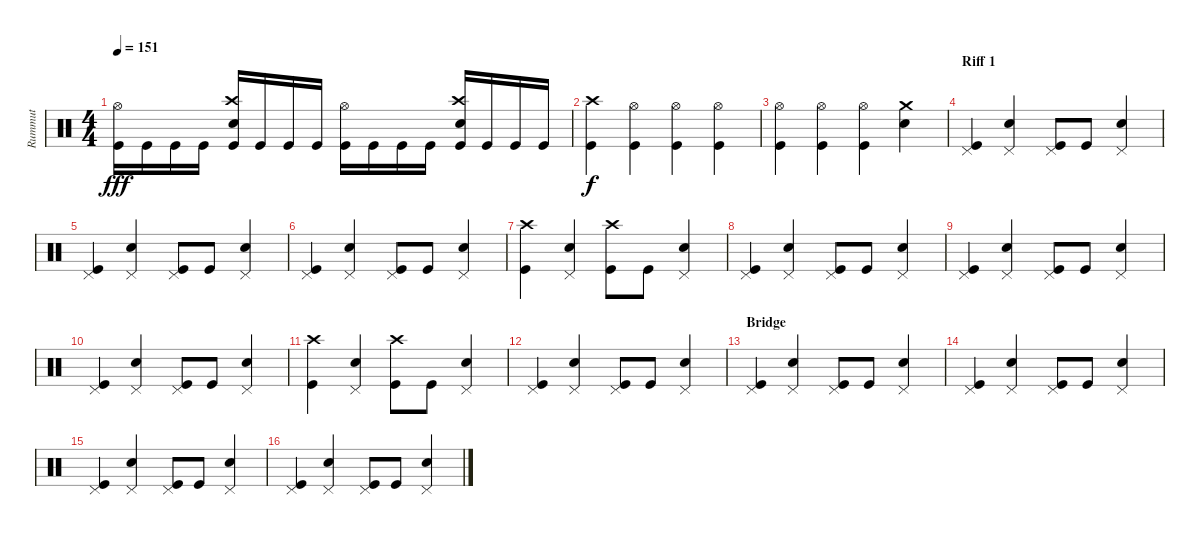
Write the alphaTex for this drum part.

\track ("Rummut" "Rummut") {instrument percussion}
\staff {score}
\articulation defaults
\ts (4 4)
\tempo 151
\clef neutral
\ks c
("Hi-Hat (open)" "Kick (hit)").16{dy fff} "Kick (hit)".16 "Kick (hit)".16 "Kick (hit)".16 ("Crash high (hit)" "Snare (hit) 2" "Kick (hit)").16 "Kick (hit)".16 "Kick (hit)".16 "Kick (hit)".16 ("Hi-Hat (open)" "Kick (hit)").16 "Kick (hit)".16 "Kick (hit)".16 "Kick (hit)".16 ("Crash high (hit)" "Snare (hit) 2" "Kick (hit)").16 "Kick (hit)".16 "Kick (hit)".16 "Kick (hit)".16 |
("Crash high (hit)" "Kick (hit)").4{dy f} ("Hi-Hat (open)" "Kick (hit)").4 ("Hi-Hat (open)" "Kick (hit)").4 ("Hi-Hat (open)" "Kick (hit)").4 |
("Hi-Hat (open)" "Kick (hit)").4 ("Hi-Hat (open)" "Kick (hit)").4 ("Hi-Hat (open)" "Kick (hit)").4 ("Crash medium (hit)" "Snare (hit) 2").4 |
\section ("" "Riff 1")
("Pedal Hi-Hat (hit)" "Kick (hit)").4 ("Pedal Hi-Hat (hit)" "Snare (hit) 2").4 ("Pedal Hi-Hat (hit)" "Kick (hit)").8 "Kick (hit)".8 ("Pedal Hi-Hat (hit)" "Snare (hit) 2").4 |
("Pedal Hi-Hat (hit)" "Kick (hit)").4 ("Pedal Hi-Hat (hit)" "Snare (hit) 2").4 ("Pedal Hi-Hat (hit)" "Kick (hit)").8 "Kick (hit)".8 ("Pedal Hi-Hat (hit)" "Snare (hit) 2").4 |
("Pedal Hi-Hat (hit)" "Kick (hit)").4 ("Pedal Hi-Hat (hit)" "Snare (hit) 2").4 ("Pedal Hi-Hat (hit)" "Kick (hit)").8 "Kick (hit)".8 ("Pedal Hi-Hat (hit)" "Snare (hit) 2").4 |
("Crash high (hit)" "Kick (hit)").4 ("Pedal Hi-Hat (hit)" "Snare (hit) 2").4 ("Crash high (hit)" "Kick (hit)").8 "Kick (hit)".8 ("Pedal Hi-Hat (hit)" "Snare (hit) 2").4 |
("Pedal Hi-Hat (hit)" "Kick (hit)").4 ("Pedal Hi-Hat (hit)" "Snare (hit) 2").4 ("Pedal Hi-Hat (hit)" "Kick (hit)").8 "Kick (hit)".8 ("Pedal Hi-Hat (hit)" "Snare (hit) 2").4 |
("Pedal Hi-Hat (hit)" "Kick (hit)").4 ("Pedal Hi-Hat (hit)" "Snare (hit) 2").4 ("Pedal Hi-Hat (hit)" "Kick (hit)").8 "Kick (hit)".8 ("Pedal Hi-Hat (hit)" "Snare (hit) 2").4 |
("Pedal Hi-Hat (hit)" "Kick (hit)").4 ("Pedal Hi-Hat (hit)" "Snare (hit) 2").4 ("Pedal Hi-Hat (hit)" "Kick (hit)").8 "Kick (hit)".8 ("Pedal Hi-Hat (hit)" "Snare (hit) 2").4 |
("Crash high (hit)" "Kick (hit)").4 ("Pedal Hi-Hat (hit)" "Snare (hit) 2").4 ("Crash high (hit)" "Kick (hit)").8 "Kick (hit)".8 ("Pedal Hi-Hat (hit)" "Snare (hit) 2").4 |
("Pedal Hi-Hat (hit)" "Kick (hit)").4 ("Pedal Hi-Hat (hit)" "Snare (hit) 2").4 ("Pedal Hi-Hat (hit)" "Kick (hit)").8 "Kick (hit)".8 ("Pedal Hi-Hat (hit)" "Snare (hit) 2").4 |
\section ("" "Bridge")
("Pedal Hi-Hat (hit)" "Kick (hit)").4 ("Pedal Hi-Hat (hit)" "Snare (hit) 2").4 ("Pedal Hi-Hat (hit)" "Kick (hit)").8 "Kick (hit)".8 ("Pedal Hi-Hat (hit)" "Snare (hit) 2").4 |
("Pedal Hi-Hat (hit)" "Kick (hit)").4 ("Pedal Hi-Hat (hit)" "Snare (hit) 2").4 ("Pedal Hi-Hat (hit)" "Kick (hit)").8 "Kick (hit)".8 ("Pedal Hi-Hat (hit)" "Snare (hit) 2").4 |
("Pedal Hi-Hat (hit)" "Kick (hit)").4 ("Pedal Hi-Hat (hit)" "Snare (hit) 2").4 ("Pedal Hi-Hat (hit)" "Kick (hit)").8 "Kick (hit)".8 ("Pedal Hi-Hat (hit)" "Snare (hit) 2").4 |
("Pedal Hi-Hat (hit)" "Kick (hit)").4 ("Pedal Hi-Hat (hit)" "Snare (hit) 2").4 ("Pedal Hi-Hat (hit)" "Kick (hit)").8 "Kick (hit)".8 ("Pedal Hi-Hat (hit)" "Snare (hit) 2").4
